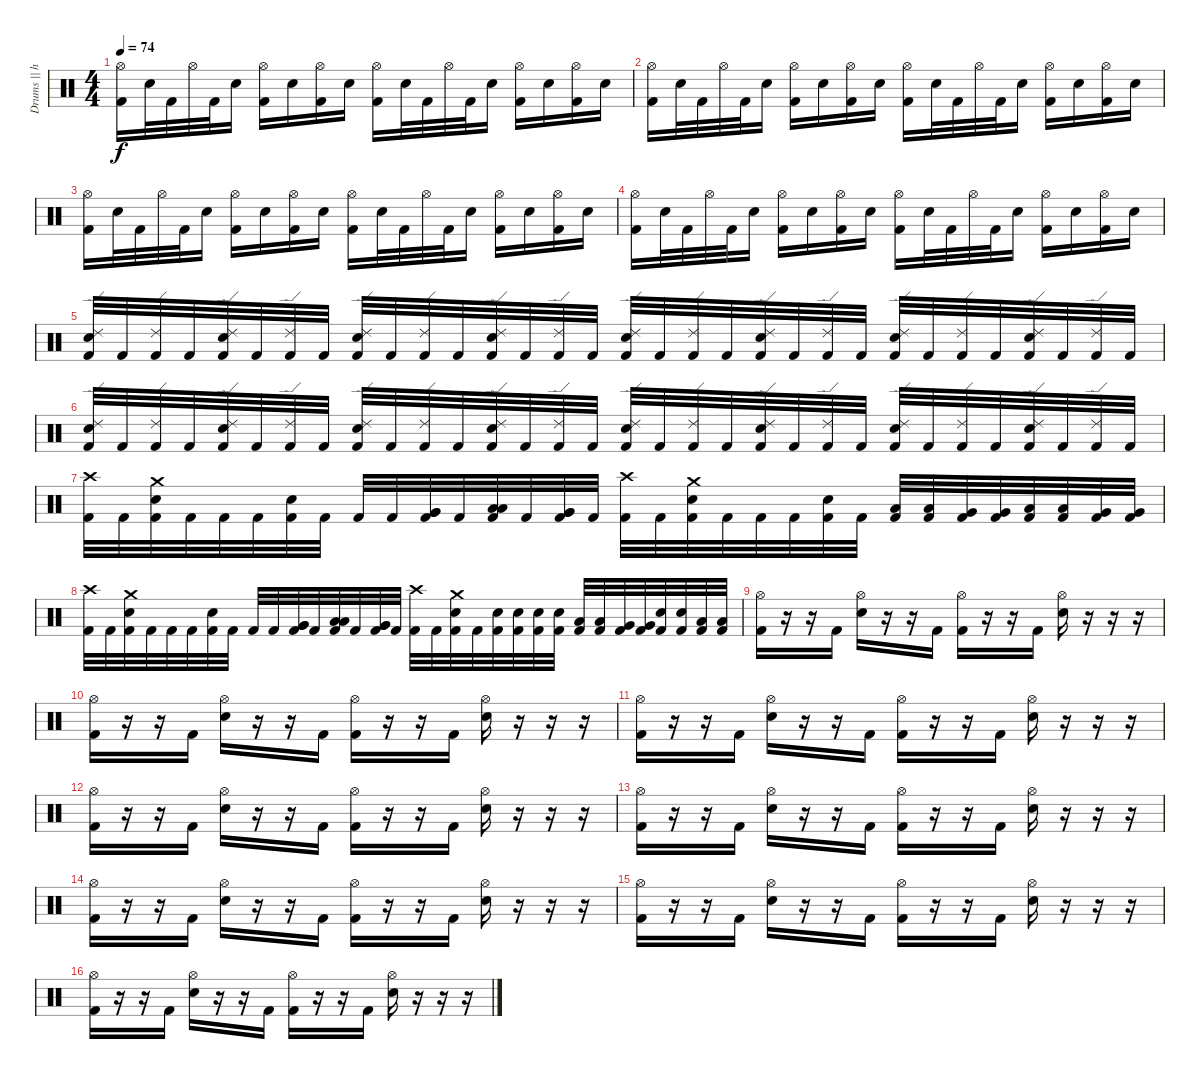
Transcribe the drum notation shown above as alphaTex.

\track ("Drums || have a look at my other tabs!" "Drums || h") {instrument percussion}
\staff {score}
\articulation defaults
\ts (4 4)
\tempo 74
\clef neutral
\ks c
("Hi-Hat (open)" "Kick (hit) 2").16{dy f} "Electric Snare (hit)".32 "Kick (hit) 2".32 "Hi-Hat (open)".32 "Kick (hit) 2".32 "Electric Snare (hit)".16 ("Hi-Hat (open)" "Kick (hit) 2").16 "Electric Snare (hit)".16 ("Hi-Hat (open)" "Kick (hit) 2").16 "Electric Snare (hit)".16 ("Hi-Hat (open)" "Kick (hit) 2").16 "Electric Snare (hit)".32 "Kick (hit) 2".32 "Hi-Hat (open)".32 "Kick (hit) 2".32 "Electric Snare (hit)".16 ("Hi-Hat (open)" "Kick (hit) 2").16 "Electric Snare (hit)".16 ("Hi-Hat (open)" "Kick (hit) 2").16 "Electric Snare (hit)".16 |
("Hi-Hat (open)" "Kick (hit) 2").16 "Electric Snare (hit)".32 "Kick (hit) 2".32 "Hi-Hat (open)".32 "Kick (hit) 2".32 "Electric Snare (hit)".16 ("Hi-Hat (open)" "Kick (hit) 2").16 "Electric Snare (hit)".16 ("Hi-Hat (open)" "Kick (hit) 2").16 "Electric Snare (hit)".16 ("Hi-Hat (open)" "Kick (hit) 2").16 "Electric Snare (hit)".32 "Kick (hit) 2".32 "Hi-Hat (open)".32 "Kick (hit) 2".32 "Electric Snare (hit)".16 ("Hi-Hat (open)" "Kick (hit) 2").16 "Electric Snare (hit)".16 ("Hi-Hat (open)" "Kick (hit) 2").16 "Electric Snare (hit)".16 |
("Hi-Hat (open)" "Kick (hit) 2").16 "Electric Snare (hit)".32 "Kick (hit) 2".32 "Hi-Hat (open)".32 "Kick (hit) 2".32 "Electric Snare (hit)".16 ("Hi-Hat (open)" "Kick (hit) 2").16 "Electric Snare (hit)".16 ("Hi-Hat (open)" "Kick (hit) 2").16 "Electric Snare (hit)".16 ("Hi-Hat (open)" "Kick (hit) 2").16 "Electric Snare (hit)".32 "Kick (hit) 2".32 "Hi-Hat (open)".32 "Kick (hit) 2".32 "Electric Snare (hit)".16 ("Hi-Hat (open)" "Kick (hit) 2").16 "Electric Snare (hit)".16 ("Hi-Hat (open)" "Kick (hit) 2").16 "Electric Snare (hit)".16 |
("Hi-Hat (open)" "Kick (hit) 2").16 "Electric Snare (hit)".32 "Kick (hit) 2".32 "Hi-Hat (open)".32 "Kick (hit) 2".32 "Electric Snare (hit)".16 ("Hi-Hat (open)" "Kick (hit) 2").16 "Electric Snare (hit)".16 ("Hi-Hat (open)" "Kick (hit) 2").16 "Electric Snare (hit)".16 ("Hi-Hat (open)" "Kick (hit) 2").16 "Electric Snare (hit)".32 "Kick (hit) 2".32 "Hi-Hat (open)".32 "Kick (hit) 2".32 "Electric Snare (hit)".16 ("Hi-Hat (open)" "Kick (hit) 2").16 "Electric Snare (hit)".16 ("Hi-Hat (open)" "Kick (hit) 2").16 "Electric Snare (hit)".16 |
("Ride (edge) 2" "Electric Snare (hit)" "Kick (hit) 2").32 "Kick (hit) 2".32 ("Ride (edge) 2" "Kick (hit) 2").32 "Kick (hit) 2".32 ("Ride (edge) 2" "Electric Snare (hit)" "Kick (hit) 2").32 "Kick (hit) 2".32 ("Ride (edge) 2" "Kick (hit) 2").32 "Kick (hit) 2".32 ("Ride (edge) 2" "Electric Snare (hit)" "Kick (hit) 2").32 "Kick (hit) 2".32 ("Ride (edge) 2" "Kick (hit) 2").32 "Kick (hit) 2".32 ("Ride (edge) 2" "Electric Snare (hit)" "Kick (hit) 2").32 "Kick (hit) 2".32 ("Ride (edge) 2" "Kick (hit) 2").32 "Kick (hit) 2".32 ("Ride (edge) 2" "Electric Snare (hit)" "Kick (hit) 2").32 "Kick (hit) 2".32 ("Ride (edge) 2" "Kick (hit) 2").32 "Kick (hit) 2".32 ("Ride (edge) 2" "Electric Snare (hit)" "Kick (hit) 2").32 "Kick (hit) 2".32 ("Ride (edge) 2" "Kick (hit) 2").32 "Kick (hit) 2".32 ("Ride (edge) 2" "Electric Snare (hit)" "Kick (hit) 2").32 "Kick (hit) 2".32 ("Ride (edge) 2" "Kick (hit) 2").32 "Kick (hit) 2".32 ("Ride (edge) 2" "Electric Snare (hit)" "Kick (hit) 2").32 "Kick (hit) 2".32 ("Ride (edge) 2" "Kick (hit) 2").32 "Kick (hit) 2".32 |
("Ride (edge) 2" "Electric Snare (hit)" "Kick (hit) 2").32 "Kick (hit) 2".32 ("Ride (edge) 2" "Kick (hit) 2").32 "Kick (hit) 2".32 ("Ride (edge) 2" "Electric Snare (hit)" "Kick (hit) 2").32 "Kick (hit) 2".32 ("Ride (edge) 2" "Kick (hit) 2").32 "Kick (hit) 2".32 ("Ride (edge) 2" "Electric Snare (hit)" "Kick (hit) 2").32 "Kick (hit) 2".32 ("Ride (edge) 2" "Kick (hit) 2").32 "Kick (hit) 2".32 ("Ride (edge) 2" "Electric Snare (hit)" "Kick (hit) 2").32 "Kick (hit) 2".32 ("Ride (edge) 2" "Kick (hit) 2").32 "Kick (hit) 2".32 ("Ride (edge) 2" "Electric Snare (hit)" "Kick (hit) 2").32 "Kick (hit) 2".32 ("Ride (edge) 2" "Kick (hit) 2").32 "Kick (hit) 2".32 ("Ride (edge) 2" "Electric Snare (hit)" "Kick (hit) 2").32 "Kick (hit) 2".32 ("Ride (edge) 2" "Kick (hit) 2").32 "Kick (hit) 2".32 ("Ride (edge) 2" "Electric Snare (hit)" "Kick (hit) 2").32 "Kick (hit) 2".32 ("Ride (edge) 2" "Kick (hit) 2").32 "Kick (hit) 2".32 ("Ride (edge) 2" "Electric Snare (hit)" "Kick (hit) 2").32 "Kick (hit) 2".32 ("Ride (edge) 2" "Kick (hit) 2").32 "Kick (hit) 2".32 |
("Crash high (hit)" "Kick (hit) 2").32 "Kick (hit) 2".32 ("Crash medium (hit)" "Electric Snare (hit)" "Kick (hit) 2").32 "Kick (hit) 2".32 "Kick (hit) 2".32 "Kick (hit) 2".32 ("Electric Snare (hit)" "Kick (hit) 2").32 "Kick (hit) 2".32 "Kick (hit) 2".32 "Kick (hit) 2".32 ("Very Low Tom (hit)" "Very Low Tom (hit)" "Kick (hit) 2").32 "Kick (hit) 2".32 ("Low Floor Tom (hit)" "Low Floor Tom (hit)" "Kick (hit) 2").32 "Kick (hit) 2".32 ("Very Low Tom (hit)" "Very Low Tom (hit)" "Kick (hit) 2").32 "Kick (hit) 2".32 ("Crash high (hit)" "Kick (hit) 2").32 "Kick (hit) 2".32 ("Crash medium (hit)" "Electric Snare (hit)" "Kick (hit) 2").32 "Kick (hit) 2".32 "Kick (hit) 2".32 "Kick (hit) 2".32 ("Electric Snare (hit)" "Kick (hit) 2").32 "Kick (hit) 2".32 ("Low Tom (hit)" "Kick (hit) 2").32 ("Low Tom (hit)" "Kick (hit) 2").32 ("Very Low Tom (hit)" "Kick (hit) 2").32 ("Very Low Tom (hit)" "Kick (hit) 2").32 ("Low Floor Tom (hit)" "Kick (hit) 2").32 ("Low Floor Tom (hit)" "Kick (hit) 2").32 ("Very Low Tom (hit)" "Kick (hit) 2").32 ("Very Low Tom (hit)" "Kick (hit) 2").32 |
("Crash high (hit)" "Kick (hit) 2").32 "Kick (hit) 2".32 ("Crash medium (hit)" "Electric Snare (hit)" "Kick (hit) 2").32 "Kick (hit) 2".32 "Kick (hit) 2".32 "Kick (hit) 2".32 ("Electric Snare (hit)" "Kick (hit) 2").32 "Kick (hit) 2".32 "Kick (hit) 2".32 "Kick (hit) 2".32 ("Very Low Tom (hit)" "Very Low Tom (hit)" "Kick (hit) 2").32 "Kick (hit) 2".32 ("Low Floor Tom (hit)" "Low Floor Tom (hit)" "Kick (hit) 2").32 "Kick (hit) 2".32 ("Very Low Tom (hit)" "Very Low Tom (hit)" "Kick (hit) 2").32 "Kick (hit) 2".32 ("Crash high (hit)" "Kick (hit) 2").32 "Kick (hit) 2".32 ("Crash medium (hit)" "Electric Snare (hit)" "Kick (hit) 2").32 "Kick (hit) 2".32 ("Electric Snare (hit)" "Kick (hit) 2").32 ("Electric Snare (hit)" "Kick (hit) 2").32 ("Electric Snare (hit)" "Kick (hit) 2").32 ("Electric Snare (hit)" "Kick (hit) 2").32 ("Low Tom (hit)" "Kick (hit) 2").32 ("Low Tom (hit)" "Kick (hit) 2").32 ("Very Low Tom (hit)" "Kick (hit) 2").32 ("Very Low Tom (hit)" "Kick (hit) 2").32 ("Electric Snare (hit)" "Kick (hit) 2").32 ("Electric Snare (hit)" "Kick (hit) 2").32 ("Low Floor Tom (hit)" "Kick (hit) 2").32 ("Low Floor Tom (hit)" "Kick (hit) 2").32 |
("Hi-Hat (open)" "Kick (hit) 2").16 r.16 r.16 "Kick (hit) 2".16 ("Hi-Hat (open)" "Electric Snare (hit)").16 r.16 r.16 "Kick (hit) 2".16 ("Hi-Hat (open)" "Kick (hit) 2").16 r.16 r.16 "Kick (hit) 2".16 ("Hi-Hat (open)" "Electric Snare (hit)").16 r.16 r.16 r.16 |
("Hi-Hat (open)" "Kick (hit) 2").16 r.16 r.16 "Kick (hit) 2".16 ("Hi-Hat (open)" "Electric Snare (hit)").16 r.16 r.16 "Kick (hit) 2".16 ("Hi-Hat (open)" "Kick (hit) 2").16 r.16 r.16 "Kick (hit) 2".16 ("Hi-Hat (open)" "Electric Snare (hit)").16 r.16 r.16 r.16 |
("Hi-Hat (open)" "Kick (hit) 2").16 r.16 r.16 "Kick (hit) 2".16 ("Hi-Hat (open)" "Electric Snare (hit)").16 r.16 r.16 "Kick (hit) 2".16 ("Hi-Hat (open)" "Kick (hit) 2").16 r.16 r.16 "Kick (hit) 2".16 ("Hi-Hat (open)" "Electric Snare (hit)").16 r.16 r.16 r.16 |
("Hi-Hat (open)" "Kick (hit) 2").16 r.16 r.16 "Kick (hit) 2".16 ("Hi-Hat (open)" "Electric Snare (hit)").16 r.16 r.16 "Kick (hit) 2".16 ("Hi-Hat (open)" "Kick (hit) 2").16 r.16 r.16 "Kick (hit) 2".16 ("Hi-Hat (open)" "Electric Snare (hit)").16 r.16 r.16 r.16 |
("Hi-Hat (open)" "Kick (hit) 2").16 r.16 r.16 "Kick (hit) 2".16 ("Hi-Hat (open)" "Electric Snare (hit)").16 r.16 r.16 "Kick (hit) 2".16 ("Hi-Hat (open)" "Kick (hit) 2").16 r.16 r.16 "Kick (hit) 2".16 ("Hi-Hat (open)" "Electric Snare (hit)").16 r.16 r.16 r.16 |
("Hi-Hat (open)" "Kick (hit) 2").16 r.16 r.16 "Kick (hit) 2".16 ("Hi-Hat (open)" "Electric Snare (hit)").16 r.16 r.16 "Kick (hit) 2".16 ("Hi-Hat (open)" "Kick (hit) 2").16 r.16 r.16 "Kick (hit) 2".16 ("Hi-Hat (open)" "Electric Snare (hit)").16 r.16 r.16 r.16 |
("Hi-Hat (open)" "Kick (hit) 2").16 r.16 r.16 "Kick (hit) 2".16 ("Hi-Hat (open)" "Electric Snare (hit)").16 r.16 r.16 "Kick (hit) 2".16 ("Hi-Hat (open)" "Kick (hit) 2").16 r.16 r.16 "Kick (hit) 2".16 ("Hi-Hat (open)" "Electric Snare (hit)").16 r.16 r.16 r.16 |
("Hi-Hat (open)" "Kick (hit) 2").16 r.16 r.16 "Kick (hit) 2".16 ("Hi-Hat (open)" "Electric Snare (hit)").16 r.16 r.16 "Kick (hit) 2".16 ("Hi-Hat (open)" "Kick (hit) 2").16 r.16 r.16 "Kick (hit) 2".16 ("Hi-Hat (open)" "Electric Snare (hit)").16 r.16 r.16 r.16
